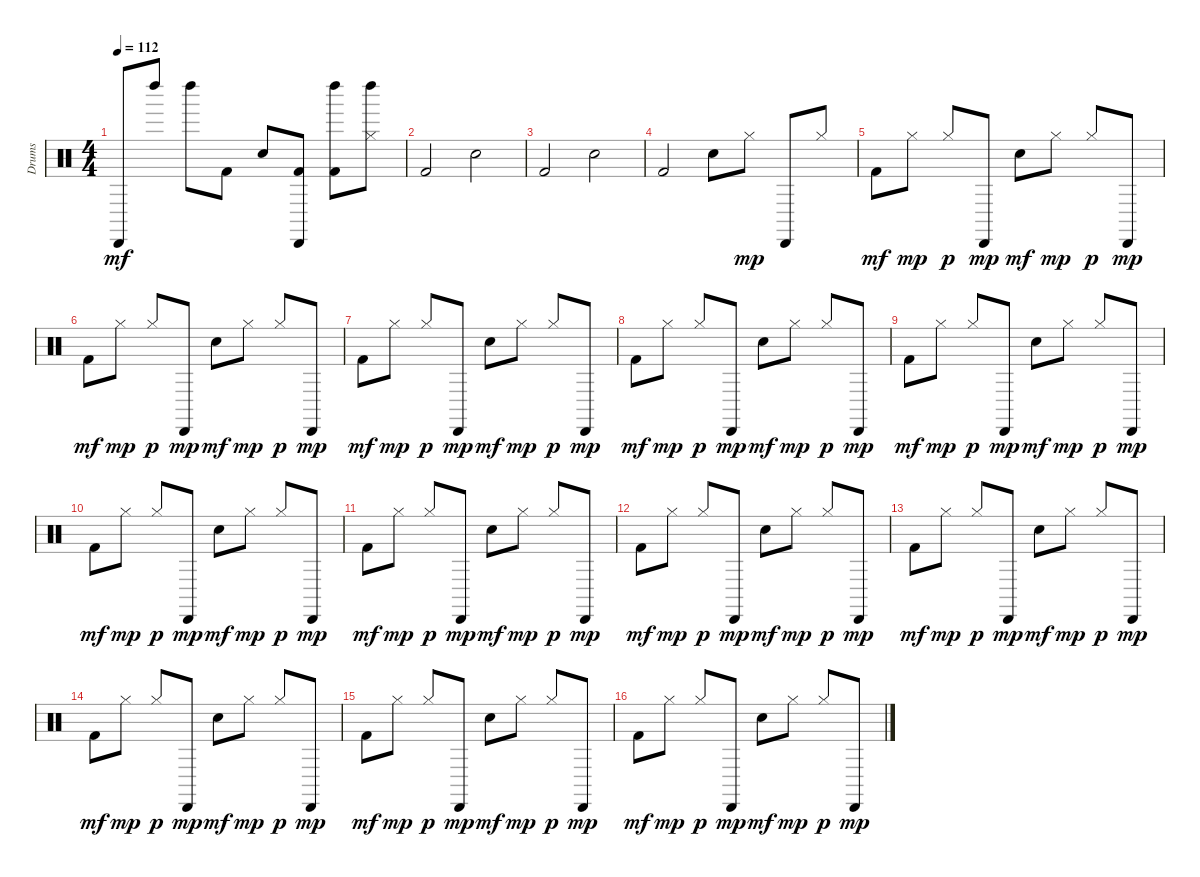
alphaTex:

\track ("Drums" "Drums") {instrument percussion}
\staff {score}
\articulation defaults
\ts (4 4)
\tempo 112
\clef neutral
\ks c "Cabasa (hit)".8{dy mf} "Left Maraca (hit)".8 "Left Maraca (hit)".8 "Kick (hit) 2".8 "Snare (hit) 2".8
("Kick (hit) 2" "Cabasa (hit)").8 ("Kick (hit) 2" "Left Maraca (hit)").8 ("Hi-Hat (closed)" "Left Maraca (hit)").8 |
"Kick (hit) 2".2 "Snare (hit) 2".2 |
"Kick (hit) 2".2 "Snare (hit) 2".2 |
"Kick (hit) 2".2 "Snare (hit) 2".8 "Hi-Hat (closed)".8{dy mp} "Cabasa (hit)".8 "Hi-Hat (closed)".8 |
"Kick (hit) 2".8{dy mf} "Hi-Hat (closed)".8{dy mp} "Hi-Hat (closed)".8{dy p} "Cabasa (hit)".8{dy mp} "Snare (hit) 2".8{dy mf} "Hi-Hat (closed)".8{dy mp} "Hi-Hat (closed)".8{dy p} "Cabasa (hit)".8{dy mp} |
"Kick (hit) 2".8{dy mf} "Hi-Hat (closed)".8{dy mp} "Hi-Hat (closed)".8{dy p} "Cabasa (hit)".8{dy mp} "Snare (hit) 2".8{dy mf} "Hi-Hat (closed)".8{dy mp} "Hi-Hat (closed)".8{dy p} "Cabasa (hit)".8{dy mp} |
"Kick (hit) 2".8{dy mf} "Hi-Hat (closed)".8{dy mp} "Hi-Hat (closed)".8{dy p} "Cabasa (hit)".8{dy mp} "Snare (hit) 2".8{dy mf} "Hi-Hat (closed)".8{dy mp} "Hi-Hat (closed)".8{dy p} "Cabasa (hit)".8{dy mp} |
"Kick (hit) 2".8{dy mf} "Hi-Hat (closed)".8{dy mp} "Hi-Hat (closed)".8{dy p} "Cabasa (hit)".8{dy mp} "Snare (hit) 2".8{dy mf} "Hi-Hat (closed)".8{dy mp} "Hi-Hat (closed)".8{dy p} "Cabasa (hit)".8{dy mp} |
"Kick (hit) 2".8{dy mf} "Hi-Hat (closed)".8{dy mp} "Hi-Hat (closed)".8{dy p} "Cabasa (hit)".8{dy mp} "Snare (hit) 2".8{dy mf} "Hi-Hat (closed)".8{dy mp} "Hi-Hat (closed)".8{dy p} "Cabasa (hit)".8{dy mp} |
"Kick (hit) 2".8{dy mf} "Hi-Hat (closed)".8{dy mp} "Hi-Hat (closed)".8{dy p} "Cabasa (hit)".8{dy mp} "Snare (hit) 2".8{dy mf} "Hi-Hat (closed)".8{dy mp} "Hi-Hat (closed)".8{dy p} "Cabasa (hit)".8{dy mp} |
"Kick (hit) 2".8{dy mf} "Hi-Hat (closed)".8{dy mp} "Hi-Hat (closed)".8{dy p} "Cabasa (hit)".8{dy mp} "Snare (hit) 2".8{dy mf} "Hi-Hat (closed)".8{dy mp} "Hi-Hat (closed)".8{dy p} "Cabasa (hit)".8{dy mp} |
"Kick (hit) 2".8{dy mf} "Hi-Hat (closed)".8{dy mp} "Hi-Hat (closed)".8{dy p} "Cabasa (hit)".8{dy mp} "Snare (hit) 2".8{dy mf} "Hi-Hat (closed)".8{dy mp} "Hi-Hat (closed)".8{dy p} "Cabasa (hit)".8{dy mp} |
"Kick (hit) 2".8{dy mf} "Hi-Hat (closed)".8{dy mp} "Hi-Hat (closed)".8{dy p} "Cabasa (hit)".8{dy mp} "Snare (hit) 2".8{dy mf} "Hi-Hat (closed)".8{dy mp} "Hi-Hat (closed)".8{dy p} "Cabasa (hit)".8{dy mp} |
"Kick (hit) 2".8{dy mf} "Hi-Hat (closed)".8{dy mp} "Hi-Hat (closed)".8{dy p} "Cabasa (hit)".8{dy mp} "Snare (hit) 2".8{dy mf} "Hi-Hat (closed)".8{dy mp} "Hi-Hat (closed)".8{dy p} "Cabasa (hit)".8{dy mp} |
"Kick (hit) 2".8{dy mf} "Hi-Hat (closed)".8{dy mp} "Hi-Hat (closed)".8{dy p} "Cabasa (hit)".8{dy mp} "Snare (hit) 2".8{dy mf} "Hi-Hat (closed)".8{dy mp} "Hi-Hat (closed)".8{dy p} "Cabasa (hit)".8{dy mp} |
"Kick (hit) 2".8{dy mf} "Hi-Hat (closed)".8{dy mp} "Hi-Hat (closed)".8{dy p} "Cabasa (hit)".8{dy mp} "Snare (hit) 2".8{dy mf} "Hi-Hat (closed)".8{dy mp} "Hi-Hat (closed)".8{dy p} "Cabasa (hit)".8{dy mp}
